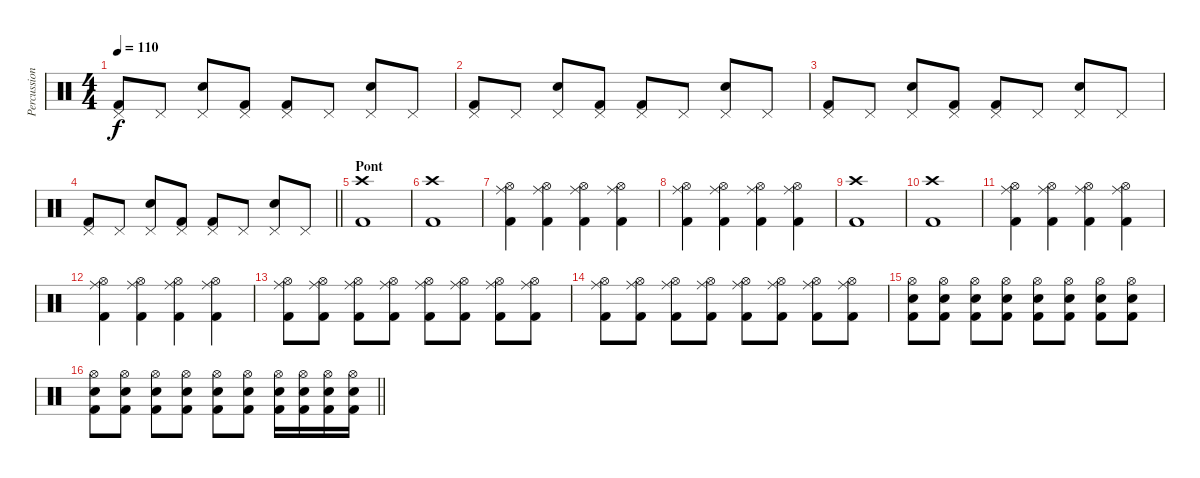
\track ("Percussions" "Percussion") {instrument percussion}
\staff {score}
\articulation defaults
\ts (4 4)
\tempo 110
\clef neutral
\ks c
("Pedal Hi-Hat (hit)" "Kick (hit) 2").8{dy f} "Pedal Hi-Hat (hit)".8 ("Pedal Hi-Hat (hit)" "Electric Snare (hit)").8 ("Pedal Hi-Hat (hit)" "Kick (hit) 2").8 ("Pedal Hi-Hat (hit)" "Kick (hit) 2").8 "Pedal Hi-Hat (hit)".8 ("Pedal Hi-Hat (hit)" "Electric Snare (hit)").8 "Pedal Hi-Hat (hit)".8 |
("Pedal Hi-Hat (hit)" "Kick (hit) 2").8 "Pedal Hi-Hat (hit)".8 ("Pedal Hi-Hat (hit)" "Electric Snare (hit)").8 ("Pedal Hi-Hat (hit)" "Kick (hit) 2").8 ("Pedal Hi-Hat (hit)" "Kick (hit) 2").8 "Pedal Hi-Hat (hit)".8 ("Pedal Hi-Hat (hit)" "Electric Snare (hit)").8 "Pedal Hi-Hat (hit)".8 |
("Pedal Hi-Hat (hit)" "Kick (hit) 2").8 "Pedal Hi-Hat (hit)".8 ("Pedal Hi-Hat (hit)" "Electric Snare (hit)").8 ("Pedal Hi-Hat (hit)" "Kick (hit) 2").8 ("Pedal Hi-Hat (hit)" "Kick (hit) 2").8 "Pedal Hi-Hat (hit)".8 ("Pedal Hi-Hat (hit)" "Electric Snare (hit)").8 "Pedal Hi-Hat (hit)".8 |
\barLineRight lightlight
("Pedal Hi-Hat (hit)" "Kick (hit) 2").8 "Pedal Hi-Hat (hit)".8 ("Pedal Hi-Hat (hit)" "Electric Snare (hit)").8 ("Pedal Hi-Hat (hit)" "Kick (hit) 2").8 ("Pedal Hi-Hat (hit)" "Kick (hit) 2").8 "Pedal Hi-Hat (hit)".8 ("Pedal Hi-Hat (hit)" "Electric Snare (hit)").8 "Pedal Hi-Hat (hit)".8 |
\section ("" "Pont")
("Crash high (hit)" "Kick (hit) 2").1 |
("Crash high (hit)" "Kick (hit) 2").1 |
("Hi-Hat (open)" "Kick (hit) 2" "Ride (middle)").4 ("Hi-Hat (open)" "Kick (hit) 2" "Ride (middle)").4 ("Hi-Hat (open)" "Kick (hit) 2" "Ride (middle)").4 ("Hi-Hat (open)" "Kick (hit) 2" "Ride (middle)").4 |
("Hi-Hat (open)" "Kick (hit) 2" "Ride (middle)").4 ("Hi-Hat (open)" "Kick (hit) 2" "Ride (middle)").4 ("Hi-Hat (open)" "Kick (hit) 2" "Ride (middle)").4 ("Hi-Hat (open)" "Kick (hit) 2" "Ride (middle)").4 |
("Crash high (hit)" "Kick (hit) 2").1 |
("Crash high (hit)" "Kick (hit) 2").1 |
("Hi-Hat (open)" "Kick (hit) 2" "Ride (middle)").4 ("Hi-Hat (open)" "Kick (hit) 2" "Ride (middle)").4 ("Hi-Hat (open)" "Kick (hit) 2" "Ride (middle)").4 ("Hi-Hat (open)" "Kick (hit) 2" "Ride (middle)").4 |
("Hi-Hat (open)" "Kick (hit) 2" "Ride (middle)").4 ("Hi-Hat (open)" "Kick (hit) 2" "Ride (middle)").4 ("Hi-Hat (open)" "Kick (hit) 2" "Ride (middle)").4 ("Hi-Hat (open)" "Kick (hit) 2" "Ride (middle)").4 |
("Hi-Hat (open)" "Kick (hit) 2" "Ride (middle)").8 ("Hi-Hat (open)" "Kick (hit) 2" "Ride (middle)").8 ("Hi-Hat (open)" "Kick (hit) 2" "Ride (middle)").8 ("Hi-Hat (open)" "Kick (hit) 2" "Ride (middle)").8 ("Hi-Hat (open)" "Kick (hit) 2" "Ride (middle)").8 ("Hi-Hat (open)" "Kick (hit) 2" "Ride (middle)").8 ("Hi-Hat (open)" "Kick (hit) 2" "Ride (middle)").8 ("Hi-Hat (open)" "Kick (hit) 2" "Ride (middle)").8 |
("Hi-Hat (open)" "Kick (hit) 2" "Ride (middle)").8 ("Hi-Hat (open)" "Kick (hit) 2" "Ride (middle)").8 ("Hi-Hat (open)" "Kick (hit) 2" "Ride (middle)").8 ("Hi-Hat (open)" "Kick (hit) 2" "Ride (middle)").8 ("Hi-Hat (open)" "Kick (hit) 2" "Ride (middle)").8 ("Hi-Hat (open)" "Kick (hit) 2" "Ride (middle)").8 ("Hi-Hat (open)" "Kick (hit) 2" "Ride (middle)").8 ("Hi-Hat (open)" "Kick (hit) 2" "Ride (middle)").8 |
("Hi-Hat (open)" "Kick (hit) 2" "Electric Snare (hit)").8 ("Hi-Hat (open)" "Kick (hit) 2" "Electric Snare (hit)").8 ("Hi-Hat (open)" "Kick (hit) 2" "Electric Snare (hit)").8 ("Hi-Hat (open)" "Kick (hit) 2" "Electric Snare (hit)").8 ("Hi-Hat (open)" "Kick (hit) 2" "Electric Snare (hit)").8 ("Hi-Hat (open)" "Kick (hit) 2" "Electric Snare (hit)").8 ("Hi-Hat (open)" "Kick (hit) 2" "Electric Snare (hit)").8 ("Hi-Hat (open)" "Kick (hit) 2" "Electric Snare (hit)").8 |
\barLineRight lightlight
("Hi-Hat (open)" "Kick (hit) 2" "Electric Snare (hit)").8 ("Hi-Hat (open)" "Kick (hit) 2" "Electric Snare (hit)").8 ("Hi-Hat (open)" "Kick (hit) 2" "Electric Snare (hit)").8 ("Hi-Hat (open)" "Kick (hit) 2" "Electric Snare (hit)").8 ("Hi-Hat (open)" "Kick (hit) 2" "Electric Snare (hit)").8 ("Hi-Hat (open)" "Kick (hit) 2" "Electric Snare (hit)").8 ("Hi-Hat (open)" "Kick (hit) 2" "Electric Snare (hit)").16 ("Hi-Hat (open)" "Kick (hit) 2" "Electric Snare (hit)").16 ("Hi-Hat (open)" "Kick (hit) 2" "Electric Snare (hit)").16 ("Hi-Hat (open)" "Kick (hit) 2" "Electric Snare (hit)").16
